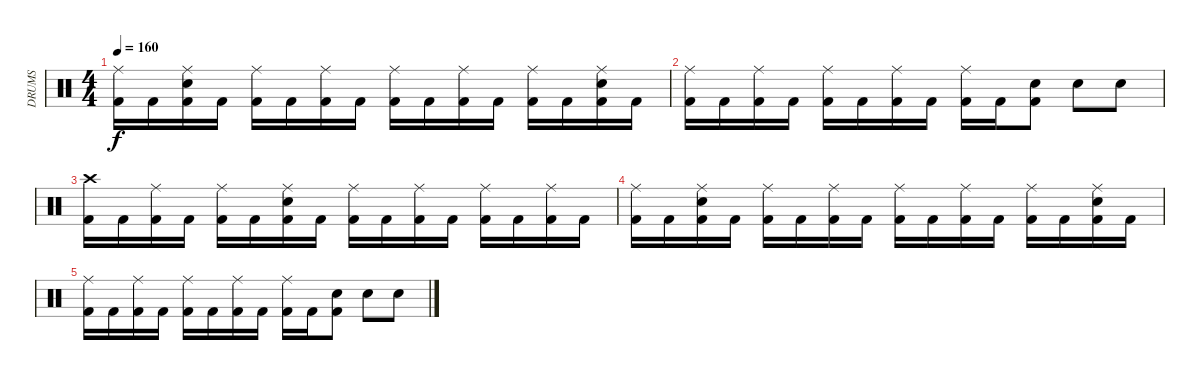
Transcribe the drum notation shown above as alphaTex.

\track ("DRUMS" "DRUMS") {instrument percussion}
\staff {score}
\articulation defaults
\ts (4 4)
\tempo 160
\clef neutral
\ks c
("Ride (middle)" "Kick (hit) 2").16{dy f} "Kick (hit) 2".16 ("Ride (middle)" "Snare (hit) 2" "Kick (hit) 2").16 "Kick (hit) 2".16 ("Ride (middle)" "Kick (hit) 2").16 "Kick (hit) 2".16 ("Ride (middle)" "Kick (hit) 2").16 "Kick (hit) 2".16 ("Ride (middle)" "Kick (hit) 2").16 "Kick (hit) 2".16 ("Ride (middle)" "Kick (hit) 2").16 "Kick (hit) 2".16 ("Ride (middle)" "Kick (hit) 2").16 "Kick (hit) 2".16 ("Ride (middle)" "Snare (hit) 2" "Kick (hit) 2").16 "Kick (hit) 2".16 |
("Ride (middle)" "Kick (hit) 2").16 "Kick (hit) 2".16 ("Ride (middle)" "Kick (hit) 2").16 "Kick (hit) 2".16 ("Ride (middle)" "Kick (hit) 2").16 "Kick (hit) 2".16 ("Ride (middle)" "Kick (hit) 2").16 "Kick (hit) 2".16 ("Ride (middle)" "Kick (hit) 2").16 "Kick (hit) 2".16 ("Snare (hit) 2" "Kick (hit) 2").8 "Snare (hit) 2".8 "Snare (hit) 2".8 |
("Crash high (hit)" "Kick (hit) 2").16 "Kick (hit) 2".16 ("Ride (middle)" "Kick (hit) 2").16 "Kick (hit) 2".16 ("Ride (middle)" "Kick (hit) 2").16 "Kick (hit) 2".16 ("Ride (middle)" "Snare (hit) 2" "Kick (hit) 2").16 "Kick (hit) 2".16 ("Ride (middle)" "Kick (hit) 2").16 "Kick (hit) 2".16 ("Ride (middle)" "Kick (hit) 2").16 "Kick (hit) 2".16 ("Ride (middle)" "Kick (hit) 2").16 "Kick (hit) 2".16 ("Ride (middle)" "Kick (hit) 2").16 "Kick (hit) 2".16 |
("Ride (middle)" "Kick (hit) 2").16 "Kick (hit) 2".16 ("Ride (middle)" "Snare (hit) 2" "Kick (hit) 2").16 "Kick (hit) 2".16 ("Ride (middle)" "Kick (hit) 2").16 "Kick (hit) 2".16 ("Ride (middle)" "Kick (hit) 2").16 "Kick (hit) 2".16 ("Ride (middle)" "Kick (hit) 2").16 "Kick (hit) 2".16 ("Ride (middle)" "Kick (hit) 2").16 "Kick (hit) 2".16 ("Ride (middle)" "Kick (hit) 2").16 "Kick (hit) 2".16 ("Ride (middle)" "Snare (hit) 2" "Kick (hit) 2").16 "Kick (hit) 2".16 |
("Ride (middle)" "Kick (hit) 2").16 "Kick (hit) 2".16 ("Ride (middle)" "Kick (hit) 2").16 "Kick (hit) 2".16 ("Ride (middle)" "Kick (hit) 2").16 "Kick (hit) 2".16 ("Ride (middle)" "Kick (hit) 2").16 "Kick (hit) 2".16 ("Ride (middle)" "Kick (hit) 2").16 "Kick (hit) 2".16 ("Snare (hit) 2" "Kick (hit) 2").8 "Snare (hit) 2".8 "Snare (hit) 2".8
